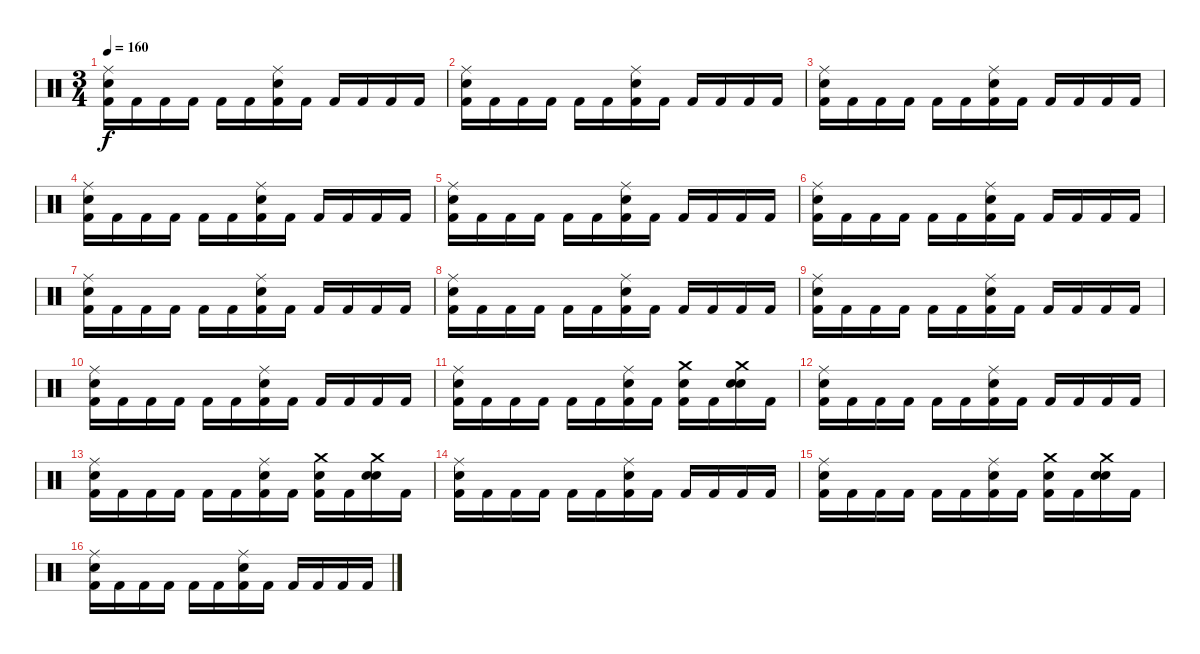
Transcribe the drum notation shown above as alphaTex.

\track "" {instrument percussion}
\staff {score}
\articulation defaults
\ts (3 4)
\tempo 160
\clef neutral
\ks c
("Ride (middle)" "Snare (hit) 2" "Kick (hit) 2").16{dy f} "Kick (hit) 2".16 "Kick (hit) 2".16 "Kick (hit) 2".16 "Kick (hit) 2".16 "Kick (hit) 2".16 ("Ride (middle)" "Snare (hit) 2" "Kick (hit) 2").16 "Kick (hit) 2".16 "Kick (hit) 2".16 "Kick (hit) 2".16 "Kick (hit) 2".16 "Kick (hit) 2".16 |
("Ride (middle)" "Snare (hit) 2" "Kick (hit) 2").16 "Kick (hit) 2".16 "Kick (hit) 2".16 "Kick (hit) 2".16 "Kick (hit) 2".16 "Kick (hit) 2".16 ("Ride (middle)" "Snare (hit) 2" "Kick (hit) 2").16 "Kick (hit) 2".16 "Kick (hit) 2".16 "Kick (hit) 2".16 "Kick (hit) 2".16 "Kick (hit) 2".16 |
("Ride (middle)" "Snare (hit) 2" "Kick (hit) 2").16 "Kick (hit) 2".16 "Kick (hit) 2".16 "Kick (hit) 2".16 "Kick (hit) 2".16 "Kick (hit) 2".16 ("Ride (middle)" "Snare (hit) 2" "Kick (hit) 2").16 "Kick (hit) 2".16 "Kick (hit) 2".16 "Kick (hit) 2".16 "Kick (hit) 2".16 "Kick (hit) 2".16 |
("Ride (middle)" "Snare (hit) 2" "Kick (hit) 2").16 "Kick (hit) 2".16 "Kick (hit) 2".16 "Kick (hit) 2".16 "Kick (hit) 2".16 "Kick (hit) 2".16 ("Ride (middle)" "Snare (hit) 2" "Kick (hit) 2").16 "Kick (hit) 2".16 "Kick (hit) 2".16 "Kick (hit) 2".16 "Kick (hit) 2".16 "Kick (hit) 2".16 |
("Ride (middle)" "Snare (hit) 2" "Kick (hit) 2").16 "Kick (hit) 2".16 "Kick (hit) 2".16 "Kick (hit) 2".16 "Kick (hit) 2".16 "Kick (hit) 2".16 ("Ride (middle)" "Snare (hit) 2" "Kick (hit) 2").16 "Kick (hit) 2".16 "Kick (hit) 2".16 "Kick (hit) 2".16 "Kick (hit) 2".16 "Kick (hit) 2".16 |
("Ride (middle)" "Snare (hit) 2" "Kick (hit) 2").16 "Kick (hit) 2".16 "Kick (hit) 2".16 "Kick (hit) 2".16 "Kick (hit) 2".16 "Kick (hit) 2".16 ("Ride (middle)" "Snare (hit) 2" "Kick (hit) 2").16 "Kick (hit) 2".16 "Kick (hit) 2".16 "Kick (hit) 2".16 "Kick (hit) 2".16 "Kick (hit) 2".16 |
("Ride (middle)" "Snare (hit) 2" "Kick (hit) 2").16 "Kick (hit) 2".16 "Kick (hit) 2".16 "Kick (hit) 2".16 "Kick (hit) 2".16 "Kick (hit) 2".16 ("Ride (middle)" "Snare (hit) 2" "Kick (hit) 2").16 "Kick (hit) 2".16 "Kick (hit) 2".16 "Kick (hit) 2".16 "Kick (hit) 2".16 "Kick (hit) 2".16 |
("Ride (middle)" "Snare (hit) 2" "Kick (hit) 2").16 "Kick (hit) 2".16 "Kick (hit) 2".16 "Kick (hit) 2".16 "Kick (hit) 2".16 "Kick (hit) 2".16 ("Ride (middle)" "Snare (hit) 2" "Kick (hit) 2").16 "Kick (hit) 2".16 "Kick (hit) 2".16 "Kick (hit) 2".16 "Kick (hit) 2".16 "Kick (hit) 2".16 |
("Ride (middle)" "Snare (hit) 2" "Kick (hit) 2").16 "Kick (hit) 2".16 "Kick (hit) 2".16 "Kick (hit) 2".16 "Kick (hit) 2".16 "Kick (hit) 2".16 ("Ride (middle)" "Snare (hit) 2" "Kick (hit) 2").16 "Kick (hit) 2".16 "Kick (hit) 2".16 "Kick (hit) 2".16 "Kick (hit) 2".16 "Kick (hit) 2".16 |
("Ride (middle)" "Snare (hit) 2" "Kick (hit) 2").16 "Kick (hit) 2".16 "Kick (hit) 2".16 "Kick (hit) 2".16 "Kick (hit) 2".16 "Kick (hit) 2".16 ("Ride (middle)" "Snare (hit) 2" "Kick (hit) 2").16 "Kick (hit) 2".16 "Kick (hit) 2".16 "Kick (hit) 2".16 "Kick (hit) 2".16 "Kick (hit) 2".16 |
("Ride (middle)" "Snare (hit) 2" "Kick (hit) 2").16 "Kick (hit) 2".16 "Kick (hit) 2".16 "Kick (hit) 2".16 "Kick (hit) 2".16 "Kick (hit) 2".16 ("Ride (middle)" "Snare (hit) 2" "Kick (hit) 2").16 "Kick (hit) 2".16 ("Crash medium (hit)" "Snare (hit) 2" "Kick (hit) 2").16 "Kick (hit) 2".16 ("Crash medium (hit)" "Snare (hit) 2" "Snare (hit) 2").16 "Kick (hit) 2".16 |
("Ride (middle)" "Snare (hit) 2" "Kick (hit) 2").16 "Kick (hit) 2".16 "Kick (hit) 2".16 "Kick (hit) 2".16 "Kick (hit) 2".16 "Kick (hit) 2".16 ("Ride (middle)" "Snare (hit) 2" "Kick (hit) 2").16 "Kick (hit) 2".16 "Kick (hit) 2".16 "Kick (hit) 2".16 "Kick (hit) 2".16 "Kick (hit) 2".16 |
("Ride (middle)" "Snare (hit) 2" "Kick (hit) 2").16 "Kick (hit) 2".16 "Kick (hit) 2".16 "Kick (hit) 2".16 "Kick (hit) 2".16 "Kick (hit) 2".16 ("Ride (middle)" "Snare (hit) 2" "Kick (hit) 2").16 "Kick (hit) 2".16 ("Crash medium (hit)" "Snare (hit) 2" "Kick (hit) 2").16 "Kick (hit) 2".16 ("Crash medium (hit)" "Snare (hit) 2" "Snare (hit) 2").16 "Kick (hit) 2".16 |
("Ride (middle)" "Snare (hit) 2" "Kick (hit) 2").16 "Kick (hit) 2".16 "Kick (hit) 2".16 "Kick (hit) 2".16 "Kick (hit) 2".16 "Kick (hit) 2".16 ("Ride (middle)" "Snare (hit) 2" "Kick (hit) 2").16 "Kick (hit) 2".16 "Kick (hit) 2".16 "Kick (hit) 2".16 "Kick (hit) 2".16 "Kick (hit) 2".16 |
("Ride (middle)" "Snare (hit) 2" "Kick (hit) 2").16 "Kick (hit) 2".16 "Kick (hit) 2".16 "Kick (hit) 2".16 "Kick (hit) 2".16 "Kick (hit) 2".16 ("Ride (middle)" "Snare (hit) 2" "Kick (hit) 2").16 "Kick (hit) 2".16 ("Crash medium (hit)" "Snare (hit) 2" "Kick (hit) 2").16 "Kick (hit) 2".16 ("Crash medium (hit)" "Snare (hit) 2" "Snare (hit) 2").16 "Kick (hit) 2".16 |
("Ride (middle)" "Snare (hit) 2" "Kick (hit) 2").16 "Kick (hit) 2".16 "Kick (hit) 2".16 "Kick (hit) 2".16 "Kick (hit) 2".16 "Kick (hit) 2".16 ("Ride (middle)" "Snare (hit) 2" "Kick (hit) 2").16 "Kick (hit) 2".16 "Kick (hit) 2".16 "Kick (hit) 2".16 "Kick (hit) 2".16 "Kick (hit) 2".16
